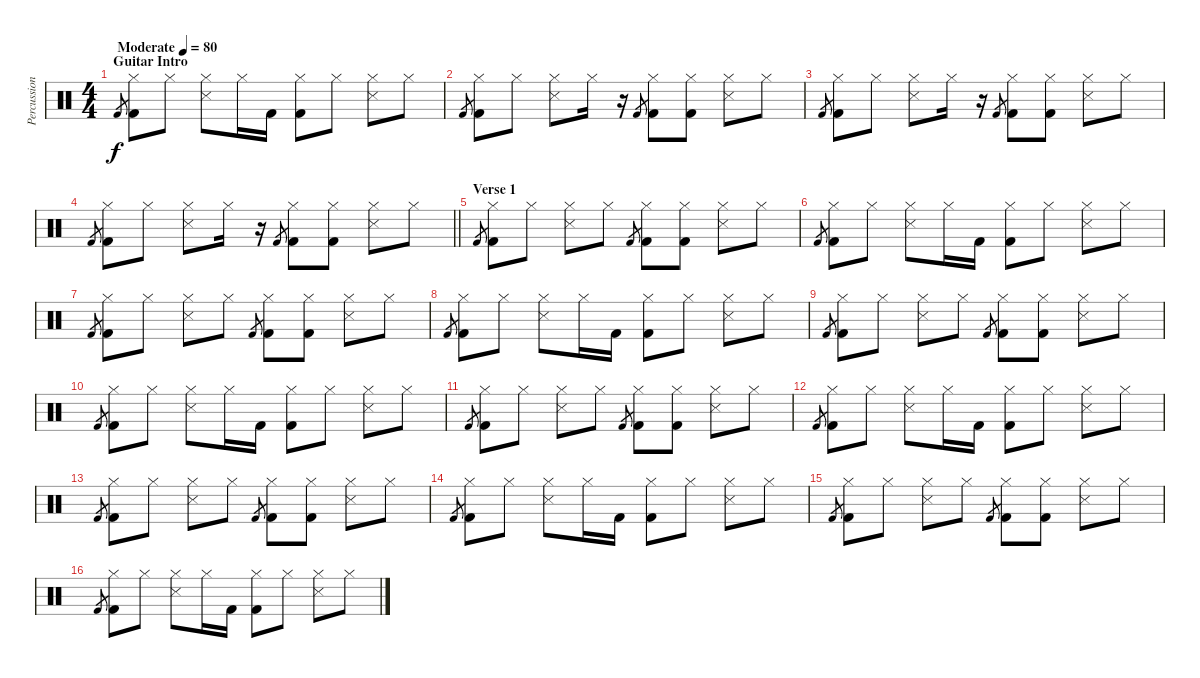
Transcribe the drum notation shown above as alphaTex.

\track ("Percussion" "Percussion") {instrument percussion}
\staff {score}
\articulation defaults
\ts (4 4)
\section ("" "Guitar Intro")
\tempo (80 "Moderate")
\clef neutral
\ks c "Kick (hit) 2".8{gr dy f}
("Hi-Hat (closed)" "Kick (hit) 2").8 "Hi-Hat (closed)".8 ("Hi-Hat (closed)" "Snare (side stick) 3").8 "Hi-Hat (closed)".16 "Kick (hit) 2".16 ("Hi-Hat (closed)" "Kick (hit) 2").8 "Hi-Hat (closed)".8 ("Hi-Hat (closed)" "Snare (side stick) 3").8 "Hi-Hat (closed)".8 |
"Kick (hit) 2".8{gr} ("Hi-Hat (closed)" "Kick (hit) 2").8 "Hi-Hat (closed)".8 ("Hi-Hat (closed)" "Snare (side stick) 3").8 "Hi-Hat (closed)".16 r.16 "Kick (hit) 2".8{gr} ("Hi-Hat (closed)" "Kick (hit) 2").8 ("Hi-Hat (closed)" "Kick (hit) 2").8 ("Hi-Hat (closed)" "Snare (side stick) 3").8 "Hi-Hat (closed)".8 |
"Kick (hit) 2".8{gr} ("Hi-Hat (closed)" "Kick (hit) 2").8 "Hi-Hat (closed)".8 ("Hi-Hat (closed)" "Snare (side stick) 3").8 "Hi-Hat (closed)".16 r.16 "Kick (hit) 2".8{gr} ("Hi-Hat (closed)" "Kick (hit) 2").8 ("Hi-Hat (closed)" "Kick (hit) 2").8 ("Hi-Hat (closed)" "Snare (side stick) 3").8 "Hi-Hat (closed)".8 |
\barLineRight lightlight "Kick (hit) 2".8{gr}
("Hi-Hat (closed)" "Kick (hit) 2").8 "Hi-Hat (closed)".8 ("Hi-Hat (closed)" "Snare (side stick) 3").8 "Hi-Hat (closed)".16 r.16 "Kick (hit) 2".8{gr} ("Hi-Hat (closed)" "Kick (hit) 2").8 ("Hi-Hat (closed)" "Kick (hit) 2").8 ("Hi-Hat (closed)" "Snare (side stick) 3").8 "Hi-Hat (closed)".8 |
\section ("" "Verse 1")
"Kick (hit) 2".8{gr} ("Hi-Hat (closed)" "Kick (hit) 2").8 "Hi-Hat (closed)".8 ("Hi-Hat (closed)" "Snare (side stick) 3").8 "Hi-Hat (closed)".8 "Kick (hit) 2".8{gr} ("Hi-Hat (closed)" "Kick (hit) 2").8 ("Hi-Hat (closed)" "Kick (hit) 2").8 ("Hi-Hat (closed)" "Snare (side stick) 3").8 "Hi-Hat (closed)".8 |
"Kick (hit) 2".8{gr} ("Hi-Hat (closed)" "Kick (hit) 2").8 "Hi-Hat (closed)".8 ("Hi-Hat (closed)" "Snare (side stick) 3").8 "Hi-Hat (closed)".16 "Kick (hit) 2".16 ("Hi-Hat (closed)" "Kick (hit) 2").8 "Hi-Hat (closed)".8 ("Hi-Hat (closed)" "Snare (side stick) 3").8 "Hi-Hat (closed)".8 |
"Kick (hit) 2".8{gr} ("Hi-Hat (closed)" "Kick (hit) 2").8 "Hi-Hat (closed)".8 ("Hi-Hat (closed)" "Snare (side stick) 3").8 "Hi-Hat (closed)".8 "Kick (hit) 2".8{gr} ("Hi-Hat (closed)" "Kick (hit) 2").8 ("Hi-Hat (closed)" "Kick (hit) 2").8 ("Hi-Hat (closed)" "Snare (side stick) 3").8 "Hi-Hat (closed)".8 |
"Kick (hit) 2".8{gr} ("Hi-Hat (closed)" "Kick (hit) 2").8 "Hi-Hat (closed)".8 ("Hi-Hat (closed)" "Snare (side stick) 3").8 "Hi-Hat (closed)".16 "Kick (hit) 2".16 ("Hi-Hat (closed)" "Kick (hit) 2").8 "Hi-Hat (closed)".8 ("Hi-Hat (closed)" "Snare (side stick) 3").8 "Hi-Hat (closed)".8 |
"Kick (hit) 2".8{gr} ("Hi-Hat (closed)" "Kick (hit) 2").8 "Hi-Hat (closed)".8 ("Hi-Hat (closed)" "Snare (side stick) 3").8 "Hi-Hat (closed)".8 "Kick (hit) 2".8{gr} ("Hi-Hat (closed)" "Kick (hit) 2").8 ("Hi-Hat (closed)" "Kick (hit) 2").8 ("Hi-Hat (closed)" "Snare (side stick) 3").8 "Hi-Hat (closed)".8 |
"Kick (hit) 2".8{gr} ("Hi-Hat (closed)" "Kick (hit) 2").8 "Hi-Hat (closed)".8 ("Hi-Hat (closed)" "Snare (side stick) 3").8 "Hi-Hat (closed)".16 "Kick (hit) 2".16 ("Hi-Hat (closed)" "Kick (hit) 2").8 "Hi-Hat (closed)".8 ("Hi-Hat (closed)" "Snare (side stick) 3").8 "Hi-Hat (closed)".8 |
"Kick (hit) 2".8{gr} ("Hi-Hat (closed)" "Kick (hit) 2").8 "Hi-Hat (closed)".8 ("Hi-Hat (closed)" "Snare (side stick) 3").8 "Hi-Hat (closed)".8 "Kick (hit) 2".8{gr} ("Hi-Hat (closed)" "Kick (hit) 2").8 ("Hi-Hat (closed)" "Kick (hit) 2").8 ("Hi-Hat (closed)" "Snare (side stick) 3").8 "Hi-Hat (closed)".8 |
"Kick (hit) 2".8{gr} ("Hi-Hat (closed)" "Kick (hit) 2").8 "Hi-Hat (closed)".8 ("Hi-Hat (closed)" "Snare (side stick) 3").8 "Hi-Hat (closed)".16 "Kick (hit) 2".16 ("Hi-Hat (closed)" "Kick (hit) 2").8 "Hi-Hat (closed)".8 ("Hi-Hat (closed)" "Snare (side stick) 3").8 "Hi-Hat (closed)".8 |
"Kick (hit) 2".8{gr} ("Hi-Hat (closed)" "Kick (hit) 2").8 "Hi-Hat (closed)".8 ("Hi-Hat (closed)" "Snare (side stick) 3").8 "Hi-Hat (closed)".8 "Kick (hit) 2".8{gr} ("Hi-Hat (closed)" "Kick (hit) 2").8 ("Hi-Hat (closed)" "Kick (hit) 2").8 ("Hi-Hat (closed)" "Snare (side stick) 3").8 "Hi-Hat (closed)".8 |
"Kick (hit) 2".8{gr} ("Hi-Hat (closed)" "Kick (hit) 2").8 "Hi-Hat (closed)".8 ("Hi-Hat (closed)" "Snare (side stick) 3").8 "Hi-Hat (closed)".16 "Kick (hit) 2".16 ("Hi-Hat (closed)" "Kick (hit) 2").8 "Hi-Hat (closed)".8 ("Hi-Hat (closed)" "Snare (side stick) 3").8 "Hi-Hat (closed)".8 |
"Kick (hit) 2".8{gr} ("Hi-Hat (closed)" "Kick (hit) 2").8 "Hi-Hat (closed)".8 ("Hi-Hat (closed)" "Snare (side stick) 3").8 "Hi-Hat (closed)".8 "Kick (hit) 2".8{gr} ("Hi-Hat (closed)" "Kick (hit) 2").8 ("Hi-Hat (closed)" "Kick (hit) 2").8 ("Hi-Hat (closed)" "Snare (side stick) 3").8 "Hi-Hat (closed)".8 |
"Kick (hit) 2".8{gr} ("Hi-Hat (closed)" "Kick (hit) 2").8 "Hi-Hat (closed)".8 ("Hi-Hat (closed)" "Snare (side stick) 3").8 "Hi-Hat (closed)".16 "Kick (hit) 2".16 ("Hi-Hat (closed)" "Kick (hit) 2").8 "Hi-Hat (closed)".8 ("Hi-Hat (closed)" "Snare (side stick) 3").8 "Hi-Hat (closed)".8
